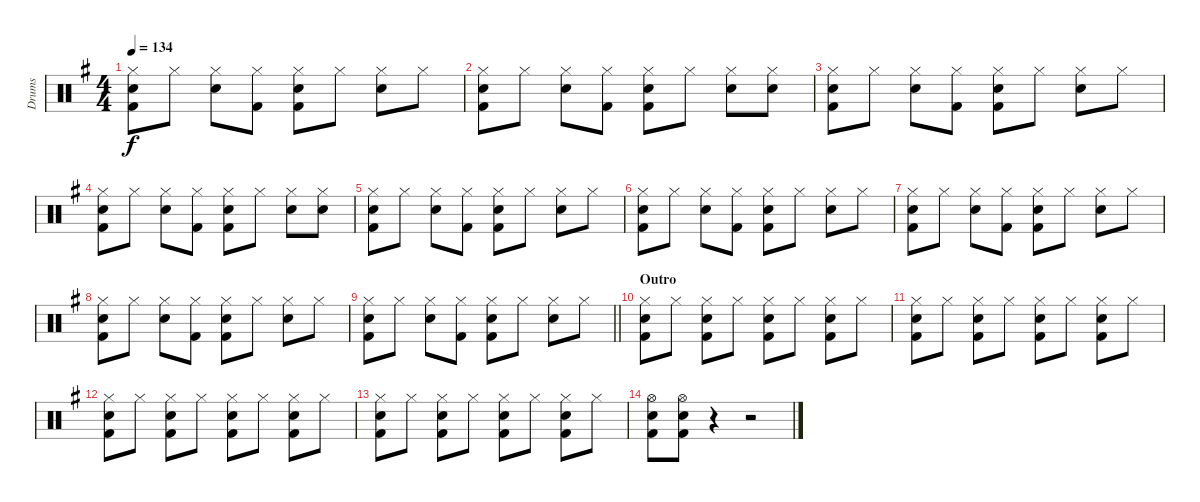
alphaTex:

\track ("Drums" "Drums") {instrument percussion}
\staff {score}
\articulation defaults
\ts (4 4)
\tempo 134
\clef neutral
\ks g
("Hi-Hat (closed)" "Electric Snare (hit)" "Kick (hit) 2").8{dy f} "Hi-Hat (closed)".8 ("Hi-Hat (closed)" "Electric Snare (hit)").8 ("Hi-Hat (closed)" "Kick (hit) 2").8 ("Hi-Hat (closed)" "Electric Snare (hit)" "Kick (hit) 2").8 "Hi-Hat (closed)".8 ("Hi-Hat (closed)" "Electric Snare (hit)").8 "Hi-Hat (closed)".8 |
("Hi-Hat (closed)" "Electric Snare (hit)" "Kick (hit) 2").8 "Hi-Hat (closed)".8 ("Hi-Hat (closed)" "Electric Snare (hit)").8 ("Hi-Hat (closed)" "Kick (hit) 2").8 ("Hi-Hat (closed)" "Electric Snare (hit)" "Kick (hit) 2").8 "Hi-Hat (closed)".8 ("Hi-Hat (closed)" "Electric Snare (hit)").8 ("Hi-Hat (closed)" "Electric Snare (hit)").8 |
("Hi-Hat (closed)" "Electric Snare (hit)" "Kick (hit) 2").8 "Hi-Hat (closed)".8 ("Hi-Hat (closed)" "Electric Snare (hit)").8 ("Hi-Hat (closed)" "Kick (hit) 2").8 ("Hi-Hat (closed)" "Electric Snare (hit)" "Kick (hit) 2").8 "Hi-Hat (closed)".8 ("Hi-Hat (closed)" "Electric Snare (hit)").8 "Hi-Hat (closed)".8 |
("Hi-Hat (closed)" "Electric Snare (hit)" "Kick (hit) 2").8 "Hi-Hat (closed)".8 ("Hi-Hat (closed)" "Electric Snare (hit)").8 ("Hi-Hat (closed)" "Kick (hit) 2").8 ("Hi-Hat (closed)" "Electric Snare (hit)" "Kick (hit) 2").8 "Hi-Hat (closed)".8 ("Hi-Hat (closed)" "Electric Snare (hit)").8 ("Hi-Hat (closed)" "Electric Snare (hit)").8 |
("Hi-Hat (closed)" "Electric Snare (hit)" "Kick (hit) 2").8 "Hi-Hat (closed)".8 ("Hi-Hat (closed)" "Electric Snare (hit)").8 ("Hi-Hat (closed)" "Kick (hit) 2").8 ("Hi-Hat (closed)" "Electric Snare (hit)" "Kick (hit) 2").8 "Hi-Hat (closed)".8 ("Hi-Hat (closed)" "Electric Snare (hit)").8 "Hi-Hat (closed)".8 |
("Hi-Hat (closed)" "Electric Snare (hit)" "Kick (hit) 2").8 "Hi-Hat (closed)".8 ("Hi-Hat (closed)" "Electric Snare (hit)").8 ("Hi-Hat (closed)" "Kick (hit) 2").8 ("Hi-Hat (closed)" "Electric Snare (hit)" "Kick (hit) 2").8 "Hi-Hat (closed)".8 ("Hi-Hat (closed)" "Electric Snare (hit)").8 "Hi-Hat (closed)".8 |
("Hi-Hat (closed)" "Electric Snare (hit)" "Kick (hit) 2").8 "Hi-Hat (closed)".8 ("Hi-Hat (closed)" "Electric Snare (hit)").8 ("Hi-Hat (closed)" "Kick (hit) 2").8 ("Hi-Hat (closed)" "Electric Snare (hit)" "Kick (hit) 2").8 "Hi-Hat (closed)".8 ("Hi-Hat (closed)" "Electric Snare (hit)").8 "Hi-Hat (closed)".8 |
("Hi-Hat (closed)" "Electric Snare (hit)" "Kick (hit) 2").8 "Hi-Hat (closed)".8 ("Hi-Hat (closed)" "Electric Snare (hit)").8 ("Hi-Hat (closed)" "Kick (hit) 2").8 ("Hi-Hat (closed)" "Electric Snare (hit)" "Kick (hit) 2").8 "Hi-Hat (closed)".8 ("Hi-Hat (closed)" "Electric Snare (hit)").8 "Hi-Hat (closed)".8 |
\barLineRight lightlight
("Hi-Hat (closed)" "Electric Snare (hit)" "Kick (hit) 2").8 "Hi-Hat (closed)".8 ("Hi-Hat (closed)" "Electric Snare (hit)").8 ("Hi-Hat (closed)" "Kick (hit) 2").8 ("Hi-Hat (closed)" "Electric Snare (hit)" "Kick (hit) 2").8 "Hi-Hat (closed)".8 ("Hi-Hat (closed)" "Electric Snare (hit)").8 "Hi-Hat (closed)".8 |
\section ("" "Outro")
("Hi-Hat (closed)" "Electric Snare (hit)" "Kick (hit) 2").8 "Hi-Hat (closed)".8 ("Hi-Hat (closed)" "Electric Snare (hit)" "Kick (hit) 2").8 "Hi-Hat (closed)".8 ("Hi-Hat (closed)" "Electric Snare (hit)" "Kick (hit) 2").8 "Hi-Hat (closed)".8 ("Hi-Hat (closed)" "Electric Snare (hit)" "Kick (hit) 2").8 "Hi-Hat (closed)".8 |
("Hi-Hat (closed)" "Electric Snare (hit)" "Kick (hit) 2").8 "Hi-Hat (closed)".8 ("Hi-Hat (closed)" "Electric Snare (hit)" "Kick (hit) 2").8 "Hi-Hat (closed)".8 ("Hi-Hat (closed)" "Electric Snare (hit)" "Kick (hit) 2").8 "Hi-Hat (closed)".8 ("Hi-Hat (closed)" "Electric Snare (hit)" "Kick (hit) 2").8 "Hi-Hat (closed)".8 |
("Hi-Hat (closed)" "Electric Snare (hit)" "Kick (hit) 2").8 "Hi-Hat (closed)".8 ("Hi-Hat (closed)" "Electric Snare (hit)" "Kick (hit) 2").8 "Hi-Hat (closed)".8 ("Hi-Hat (closed)" "Electric Snare (hit)" "Kick (hit) 2").8 "Hi-Hat (closed)".8 ("Hi-Hat (closed)" "Electric Snare (hit)" "Kick (hit) 2").8 "Hi-Hat (closed)".8 |
("Hi-Hat (closed)" "Electric Snare (hit)" "Kick (hit) 2").8 "Hi-Hat (closed)".8 ("Hi-Hat (closed)" "Electric Snare (hit)" "Kick (hit) 2").8 "Hi-Hat (closed)".8 ("Hi-Hat (closed)" "Electric Snare (hit)" "Kick (hit) 2").8 "Hi-Hat (closed)".8 ("Hi-Hat (closed)" "Electric Snare (hit)" "Kick (hit) 2").8 "Hi-Hat (closed)".8 |
("Hi-Hat (open)" "Electric Snare (hit)" "Kick (hit) 2").8 ("Hi-Hat (open)" "Electric Snare (hit)" "Kick (hit) 2").8 r.4 r.2
